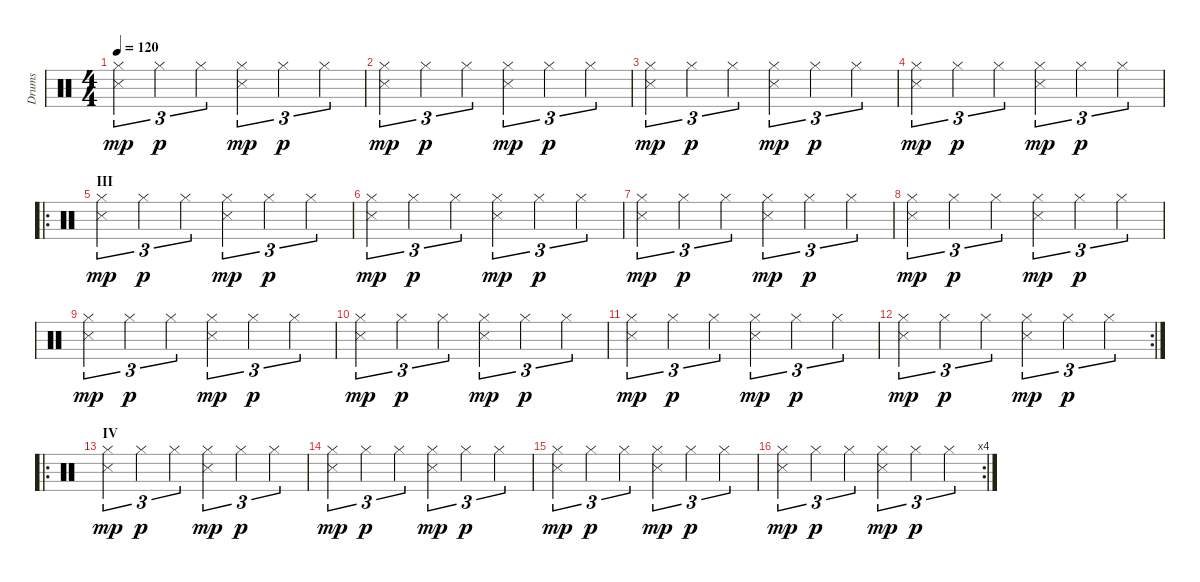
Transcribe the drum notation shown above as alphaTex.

\track ("Drums" "Drums") {instrument percussion}
\staff {score}
\articulation defaults
\ts (4 4)
\tempo 120
\clef neutral
\ks c
("Hi-Hat (closed)" "Snare (side stick) 3").4{tu (3 2) dy mp} "Hi-Hat (closed)".4{tu (3 2) dy p} "Hi-Hat (closed)".4{tu (3 2)} ("Hi-Hat (closed)" "Snare (side stick) 3").4{tu (3 2) dy mp} "Hi-Hat (closed)".4{tu (3 2) dy p} "Hi-Hat (closed)".4{tu (3 2)} |
("Hi-Hat (closed)" "Snare (side stick) 3").4{tu (3 2) dy mp} "Hi-Hat (closed)".4{tu (3 2) dy p} "Hi-Hat (closed)".4{tu (3 2)} ("Hi-Hat (closed)" "Snare (side stick) 3").4{tu (3 2) dy mp} "Hi-Hat (closed)".4{tu (3 2) dy p} "Hi-Hat (closed)".4{tu (3 2)} |
("Hi-Hat (closed)" "Snare (side stick) 3").4{tu (3 2) dy mp} "Hi-Hat (closed)".4{tu (3 2) dy p} "Hi-Hat (closed)".4{tu (3 2)} ("Hi-Hat (closed)" "Snare (side stick) 3").4{tu (3 2) dy mp} "Hi-Hat (closed)".4{tu (3 2) dy p} "Hi-Hat (closed)".4{tu (3 2)} |
("Hi-Hat (closed)" "Snare (side stick) 3").4{tu (3 2) dy mp} "Hi-Hat (closed)".4{tu (3 2) dy p} "Hi-Hat (closed)".4{tu (3 2)} ("Hi-Hat (closed)" "Snare (side stick) 3").4{tu (3 2) dy mp} "Hi-Hat (closed)".4{tu (3 2) dy p} "Hi-Hat (closed)".4{tu (3 2)} |
\ro
\section ("" "III")
("Hi-Hat (closed)" "Snare (side stick) 3").4{tu (3 2) dy mp} "Hi-Hat (closed)".4{tu (3 2) dy p} "Hi-Hat (closed)".4{tu (3 2)} ("Hi-Hat (closed)" "Snare (side stick) 3").4{tu (3 2) dy mp} "Hi-Hat (closed)".4{tu (3 2) dy p} "Hi-Hat (closed)".4{tu (3 2)} |
("Hi-Hat (closed)" "Snare (side stick) 3").4{tu (3 2) dy mp} "Hi-Hat (closed)".4{tu (3 2) dy p} "Hi-Hat (closed)".4{tu (3 2)} ("Hi-Hat (closed)" "Snare (side stick) 3").4{tu (3 2) dy mp} "Hi-Hat (closed)".4{tu (3 2) dy p} "Hi-Hat (closed)".4{tu (3 2)} |
("Hi-Hat (closed)" "Snare (side stick) 3").4{tu (3 2) dy mp} "Hi-Hat (closed)".4{tu (3 2) dy p} "Hi-Hat (closed)".4{tu (3 2)} ("Hi-Hat (closed)" "Snare (side stick) 3").4{tu (3 2) dy mp} "Hi-Hat (closed)".4{tu (3 2) dy p} "Hi-Hat (closed)".4{tu (3 2)} |
("Hi-Hat (closed)" "Snare (side stick) 3").4{tu (3 2) dy mp} "Hi-Hat (closed)".4{tu (3 2) dy p} "Hi-Hat (closed)".4{tu (3 2)} ("Hi-Hat (closed)" "Snare (side stick) 3").4{tu (3 2) dy mp} "Hi-Hat (closed)".4{tu (3 2) dy p} "Hi-Hat (closed)".4{tu (3 2)} |
("Hi-Hat (closed)" "Snare (side stick) 3").4{tu (3 2) dy mp} "Hi-Hat (closed)".4{tu (3 2) dy p} "Hi-Hat (closed)".4{tu (3 2)} ("Hi-Hat (closed)" "Snare (side stick) 3").4{tu (3 2) dy mp} "Hi-Hat (closed)".4{tu (3 2) dy p} "Hi-Hat (closed)".4{tu (3 2)} |
("Hi-Hat (closed)" "Snare (side stick) 3").4{tu (3 2) dy mp} "Hi-Hat (closed)".4{tu (3 2) dy p} "Hi-Hat (closed)".4{tu (3 2)} ("Hi-Hat (closed)" "Snare (side stick) 3").4{tu (3 2) dy mp} "Hi-Hat (closed)".4{tu (3 2) dy p} "Hi-Hat (closed)".4{tu (3 2)} |
("Hi-Hat (closed)" "Snare (side stick) 3").4{tu (3 2) dy mp} "Hi-Hat (closed)".4{tu (3 2) dy p} "Hi-Hat (closed)".4{tu (3 2)} ("Hi-Hat (closed)" "Snare (side stick) 3").4{tu (3 2) dy mp} "Hi-Hat (closed)".4{tu (3 2) dy p} "Hi-Hat (closed)".4{tu (3 2)} |
\rc 2
("Hi-Hat (closed)" "Snare (side stick) 3").4{tu (3 2) dy mp} "Hi-Hat (closed)".4{tu (3 2) dy p} "Hi-Hat (closed)".4{tu (3 2)} ("Hi-Hat (closed)" "Snare (side stick) 3").4{tu (3 2) dy mp} "Hi-Hat (closed)".4{tu (3 2) dy p} "Hi-Hat (closed)".4{tu (3 2)} |
\ro
\section ("" "IV")
("Hi-Hat (closed)" "Snare (side stick) 3").4{tu (3 2) dy mp} "Hi-Hat (closed)".4{tu (3 2) dy p} "Hi-Hat (closed)".4{tu (3 2)} ("Hi-Hat (closed)" "Snare (side stick) 3").4{tu (3 2) dy mp} "Hi-Hat (closed)".4{tu (3 2) dy p} "Hi-Hat (closed)".4{tu (3 2)} |
("Hi-Hat (closed)" "Snare (side stick) 3").4{tu (3 2) dy mp} "Hi-Hat (closed)".4{tu (3 2) dy p} "Hi-Hat (closed)".4{tu (3 2)} ("Hi-Hat (closed)" "Snare (side stick) 3").4{tu (3 2) dy mp} "Hi-Hat (closed)".4{tu (3 2) dy p} "Hi-Hat (closed)".4{tu (3 2)} |
("Hi-Hat (closed)" "Snare (side stick) 3").4{tu (3 2) dy mp} "Hi-Hat (closed)".4{tu (3 2) dy p} "Hi-Hat (closed)".4{tu (3 2)} ("Hi-Hat (closed)" "Snare (side stick) 3").4{tu (3 2) dy mp} "Hi-Hat (closed)".4{tu (3 2) dy p} "Hi-Hat (closed)".4{tu (3 2)} |
\rc 4
("Hi-Hat (closed)" "Snare (side stick) 3").4{tu (3 2) dy mp} "Hi-Hat (closed)".4{tu (3 2) dy p} "Hi-Hat (closed)".4{tu (3 2)} ("Hi-Hat (closed)" "Snare (side stick) 3").4{tu (3 2) dy mp} "Hi-Hat (closed)".4{tu (3 2) dy p} "Hi-Hat (closed)".4{tu (3 2)}
